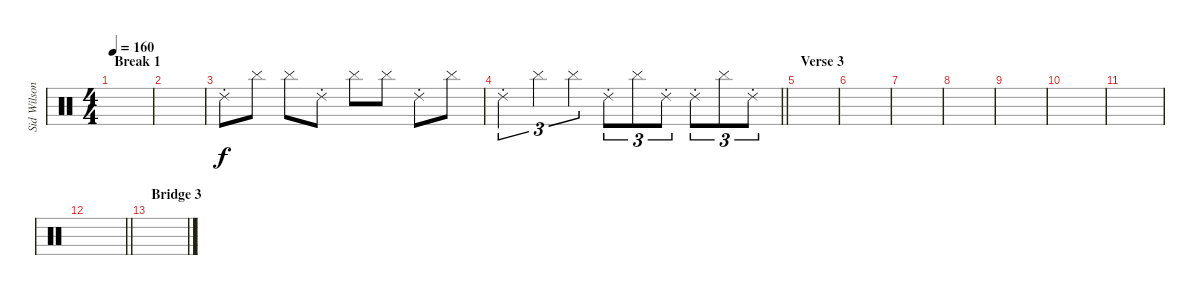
\track ("Sid Wilson" "Sid Wilson") {instrument percussion}
\staff {score}
\articulation defaults
\ts (4 4)
\section ("" "Break 1")
\tempo 160
\clef neutral
\ks c
|
|
"Ride (choke) 2".8 "Cymbal (hit)".8 "Cymbal (hit)".8 "Ride (choke) 2".8 "Cymbal (hit)".8 "Cymbal (hit)".8 "Ride (choke) 2".8 "Cymbal (hit)".8 |
\barLineRight lightlight "Ride (choke) 2".4{tu (3 2)} "Cymbal (hit)".4{tu (3 2)} "Cymbal (hit)".4{tu (3 2)} "Ride (choke) 2".8{tu (3 2)} "Cymbal (hit)".8{tu (3 2)} "Ride (choke) 2".8{tu (3 2)} "Ride (choke) 2".8{tu (3 2)} "Cymbal (hit)".8{tu (3 2)} "Ride (choke) 2".8{tu (3 2)}
|
\section ("" "Verse 3")
|
|
|
|
|
|
|
\barLineRight lightlight
|
\section ("" "Bridge 3")
